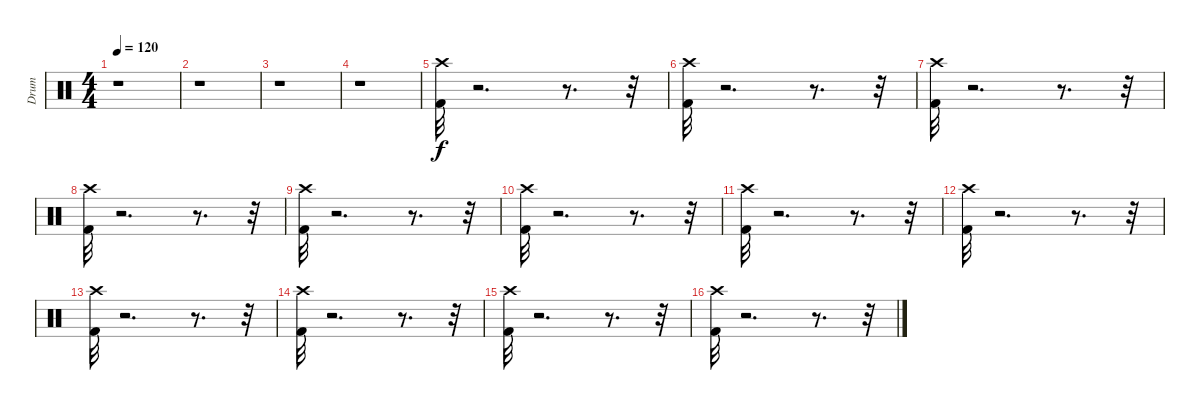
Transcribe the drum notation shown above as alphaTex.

\track ("Drum" "Drum") {instrument percussion}
\staff {score}
\articulation defaults
\ts (4 4)
\tempo 120
\clef neutral
\ks c
r.1{dy f} |
r.1 |
r.1 |
r.1 |
("Kick (hit) 2" "Crash high (hit)").32 r.2{d} r.8{d} r.32 |
("Kick (hit) 2" "Crash high (hit)").32 r.2{d} r.8{d} r.32 |
("Kick (hit) 2" "Crash high (hit)").32 r.2{d} r.8{d} r.32 |
("Kick (hit) 2" "Crash high (hit)").32 r.2{d} r.8{d} r.32 |
("Kick (hit) 2" "Crash high (hit)").32 r.2{d} r.8{d} r.32 |
("Kick (hit) 2" "Crash high (hit)").32 r.2{d} r.8{d} r.32 |
("Kick (hit) 2" "Crash high (hit)").32 r.2{d} r.8{d} r.32 |
("Kick (hit) 2" "Crash high (hit)").32 r.2{d} r.8{d} r.32 |
("Kick (hit) 2" "Crash high (hit)").32 r.2{d} r.8{d} r.32 |
("Crash high (hit)" "Kick (hit) 2").32 r.2{d} r.8{d} r.32 |
("Kick (hit) 2" "Crash high (hit)").32 r.2{d} r.8{d} r.32 |
("Kick (hit) 2" "Crash high (hit)").32 r.2{d} r.8{d} r.32
